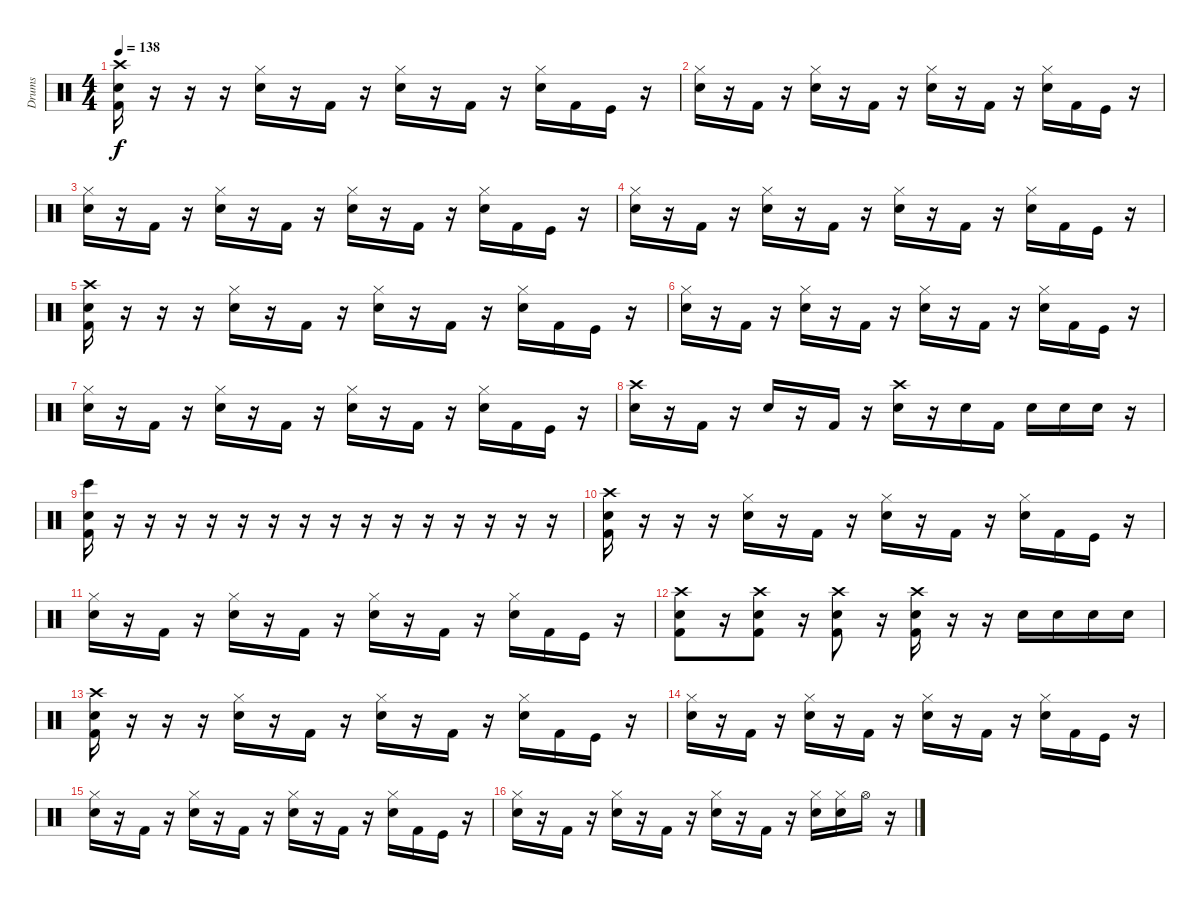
\track ("Drums" "Drums") {instrument percussion}
\staff {score}
\articulation defaults
\ts (4 4)
\section ("" "")
\tempo 138
\clef neutral
\ks c
("Crash high (hit)" "Snare (hit) 2" "Kick (hit) 2").16{dy f} r.16 r.16 r.16 ("Hi-Hat (closed)" "Snare (hit) 2").16 r.16 "Kick (hit) 2".16 r.16 ("Hi-Hat (closed)" "Snare (hit) 2").16 r.16 "Kick (hit) 2".16 r.16 ("Hi-Hat (closed)" "Snare (hit) 2").16 "Kick (hit) 2".16 "Kick (hit)".16 r.16 |
("Hi-Hat (closed)" "Snare (hit) 2").16 r.16 "Kick (hit) 2".16 r.16 ("Hi-Hat (closed)" "Snare (hit) 2").16 r.16 "Kick (hit) 2".16 r.16 ("Hi-Hat (closed)" "Snare (hit) 2").16 r.16 "Kick (hit) 2".16 r.16 ("Hi-Hat (closed)" "Snare (hit) 2").16 "Kick (hit) 2".16 "Kick (hit)".16 r.16 |
("Hi-Hat (closed)" "Snare (hit) 2").16 r.16 "Kick (hit) 2".16 r.16 ("Hi-Hat (closed)" "Snare (hit) 2").16 r.16 "Kick (hit) 2".16 r.16 ("Hi-Hat (closed)" "Snare (hit) 2").16 r.16 "Kick (hit) 2".16 r.16 ("Hi-Hat (closed)" "Snare (hit) 2").16 "Kick (hit) 2".16 "Kick (hit)".16 r.16 |
("Hi-Hat (closed)" "Snare (hit) 2").16 r.16 "Kick (hit) 2".16 r.16 ("Hi-Hat (closed)" "Snare (hit) 2").16 r.16 "Kick (hit) 2".16 r.16 ("Hi-Hat (closed)" "Snare (hit) 2").16 r.16 "Kick (hit) 2".16 r.16 ("Hi-Hat (closed)" "Snare (hit) 2").16 "Kick (hit) 2".16 "Kick (hit)".16 r.16 |
("Crash high (hit)" "Snare (hit) 2" "Kick (hit) 2").16 r.16 r.16 r.16 ("Hi-Hat (closed)" "Snare (hit) 2").16 r.16 "Kick (hit) 2".16 r.16 ("Hi-Hat (closed)" "Snare (hit) 2").16 r.16 "Kick (hit) 2".16 r.16 ("Hi-Hat (closed)" "Snare (hit) 2").16 "Kick (hit) 2".16 "Kick (hit)".16 r.16 |
("Hi-Hat (closed)" "Snare (hit) 2").16 r.16 "Kick (hit) 2".16 r.16 ("Hi-Hat (closed)" "Snare (hit) 2").16 r.16 "Kick (hit) 2".16 r.16 ("Hi-Hat (closed)" "Snare (hit) 2").16 r.16 "Kick (hit) 2".16 r.16 ("Hi-Hat (closed)" "Snare (hit) 2").16 "Kick (hit) 2".16 "Kick (hit)".16 r.16 |
("Hi-Hat (closed)" "Snare (hit) 2").16 r.16 "Kick (hit) 2".16 r.16 ("Hi-Hat (closed)" "Snare (hit) 2").16 r.16 "Kick (hit) 2".16 r.16 ("Hi-Hat (closed)" "Snare (hit) 2").16 r.16 "Kick (hit) 2".16 r.16 ("Hi-Hat (closed)" "Snare (hit) 2").16 "Kick (hit) 2".16 "Kick (hit)".16 r.16 |
("Crash high (hit)" "Snare (hit) 2").16 r.16 "Kick (hit) 2".16 r.16 "Snare (hit) 2".16 r.16 "Kick (hit) 2".16 r.16 ("Crash high (hit)" "Snare (hit) 2").16 r.16 "Snare (hit) 2".16 "Kick (hit) 2".16 "Snare (hit) 2".16 "Snare (hit) 2".16 "Snare (hit) 2".16 r.16 |
("Bongo High (hit)" "Snare (hit) 2" "Kick (hit) 2").16 r.16 r.16 r.16 r.16 r.16 r.16 r.16 r.16 r.16 r.16 r.16 r.16 r.16 r.16 r.16 |
("Crash high (hit)" "Snare (hit) 2" "Kick (hit) 2").16 r.16 r.16 r.16 ("Hi-Hat (closed)" "Snare (hit) 2").16 r.16 "Kick (hit) 2".16 r.16 ("Hi-Hat (closed)" "Snare (hit) 2").16 r.16 "Kick (hit) 2".16 r.16 ("Hi-Hat (closed)" "Snare (hit) 2").16 "Kick (hit) 2".16 "Kick (hit)".16 r.16 |
("Hi-Hat (closed)" "Snare (hit) 2").16 r.16 "Kick (hit) 2".16 r.16 ("Hi-Hat (closed)" "Snare (hit) 2").16 r.16 "Kick (hit) 2".16 r.16 ("Hi-Hat (closed)" "Snare (hit) 2").16 r.16 "Kick (hit) 2".16 r.16 ("Hi-Hat (closed)" "Snare (hit) 2").16 "Kick (hit) 2".16 "Kick (hit)".16 r.16 |
("Crash high (hit)" "Snare (hit) 2" "Kick (hit) 2").8 r.16 ("Crash high (hit)" "Snare (hit) 2" "Kick (hit) 2").8 r.16 ("Crash high (hit)" "Snare (hit) 2" "Kick (hit) 2").8 r.16 ("Crash high (hit)" "Snare (hit) 2" "Kick (hit) 2").16 r.16 r.16 "Snare (hit) 2".16 "Snare (hit) 2".16 "Snare (hit) 2".16 "Snare (hit) 2".16 |
\section ("" "")
("Crash high (hit)" "Snare (hit) 2" "Kick (hit) 2").16 r.16 r.16 r.16 ("Hi-Hat (closed)" "Snare (hit) 2").16 r.16 "Kick (hit) 2".16 r.16 ("Hi-Hat (closed)" "Snare (hit) 2").16 r.16 "Kick (hit) 2".16 r.16 ("Hi-Hat (closed)" "Snare (hit) 2").16 "Kick (hit) 2".16 "Kick (hit)".16 r.16 |
("Hi-Hat (closed)" "Snare (hit) 2").16 r.16 "Kick (hit) 2".16 r.16 ("Hi-Hat (closed)" "Snare (hit) 2").16 r.16 "Kick (hit) 2".16 r.16 ("Hi-Hat (closed)" "Snare (hit) 2").16 r.16 "Kick (hit) 2".16 r.16 ("Hi-Hat (closed)" "Snare (hit) 2").16 "Kick (hit) 2".16 "Kick (hit)".16 r.16 |
("Hi-Hat (closed)" "Snare (hit) 2").16 r.16 "Kick (hit) 2".16 r.16 ("Hi-Hat (closed)" "Snare (hit) 2").16 r.16 "Kick (hit) 2".16 r.16 ("Hi-Hat (closed)" "Snare (hit) 2").16 r.16 "Kick (hit) 2".16 r.16 ("Hi-Hat (closed)" "Snare (hit) 2").16 "Kick (hit) 2".16 "Kick (hit)".16 r.16 |
("Hi-Hat (closed)" "Snare (hit) 2").16 r.16 "Kick (hit) 2".16 r.16 ("Hi-Hat (closed)" "Snare (hit) 2").16 r.16 "Kick (hit) 2".16 r.16 ("Hi-Hat (closed)" "Snare (hit) 2").16 r.16 "Kick (hit) 2".16 r.16 ("Hi-Hat (closed)" "Snare (hit) 2").16 ("Hi-Hat (closed)" "Snare (hit) 2").16 "Hi-Hat (open)".16 r.16
